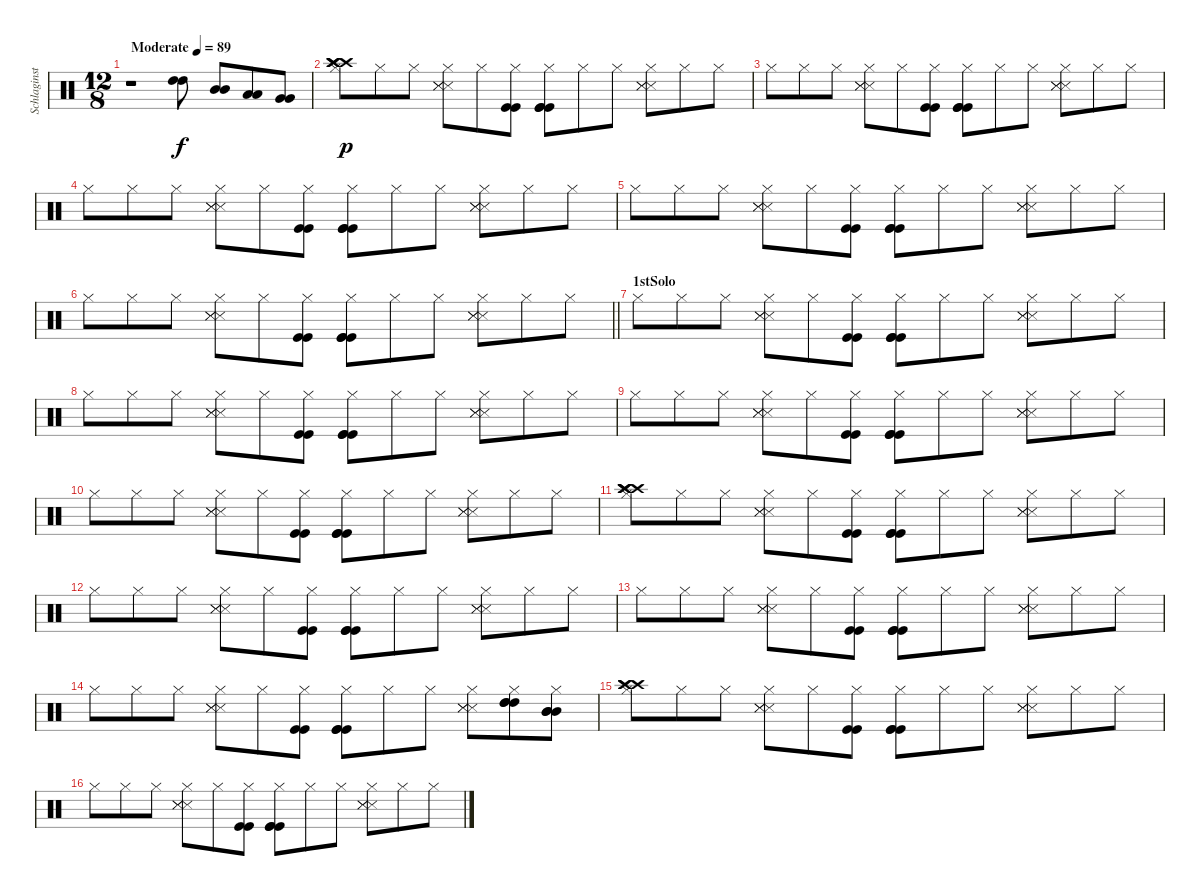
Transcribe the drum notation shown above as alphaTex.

\track ("Schlaginstrumente - Auswahl" "Schlaginst") {instrument percussion}
\staff {score}
\articulation defaults
\ts (12 8)
\tempo (89 "Moderate")
\clef neutral
\ks c
r.1{dy f} ("High Tom (hit)" "High Tom (hit)").8 ("Mid Tom (hit)" "Mid Tom (hit)").8 ("Low Tom (hit)" "Low Tom (hit)").8 ("Very Low Tom (hit)" "Very Low Tom (hit)").8 |
("Hi-Hat (closed)" "Crash high (hit)" "Crash high (hit)" "Crash high (hit)" "Crash high (hit)").8{dy p} "Hi-Hat (closed)".8 "Hi-Hat (closed)".8 ("Hi-Hat (closed)" "Snare (side stick) 3" "Snare (side stick) 3" "Snare (side stick) 3").8 "Hi-Hat (closed)".8 ("Hi-Hat (closed)" "Kick (hit)" "Kick (hit)").8 ("Hi-Hat (closed)" "Kick (hit)" "Kick (hit)" "Kick (hit)").8 "Hi-Hat (closed)".8 "Hi-Hat (closed)".8 ("Hi-Hat (closed)" "Snare (side stick) 3" "Snare (side stick) 3" "Snare (side stick) 3").8 "Hi-Hat (closed)".8 "Hi-Hat (closed)".8 |
"Hi-Hat (closed)".8 "Hi-Hat (closed)".8 "Hi-Hat (closed)".8 ("Hi-Hat (closed)" "Snare (side stick) 3" "Snare (side stick) 3" "Snare (side stick) 3").8 "Hi-Hat (closed)".8 ("Hi-Hat (closed)" "Kick (hit)" "Kick (hit)").8 ("Hi-Hat (closed)" "Kick (hit)" "Kick (hit)" "Kick (hit)").8 "Hi-Hat (closed)".8 "Hi-Hat (closed)".8 ("Hi-Hat (closed)" "Snare (side stick) 3" "Snare (side stick) 3" "Snare (side stick) 3").8 "Hi-Hat (closed)".8 "Hi-Hat (closed)".8 |
"Hi-Hat (closed)".8 "Hi-Hat (closed)".8 "Hi-Hat (closed)".8 ("Hi-Hat (closed)" "Snare (side stick) 3" "Snare (side stick) 3" "Snare (side stick) 3").8 "Hi-Hat (closed)".8 ("Hi-Hat (closed)" "Kick (hit)" "Kick (hit)").8 ("Hi-Hat (closed)" "Kick (hit)" "Kick (hit)" "Kick (hit)").8 "Hi-Hat (closed)".8 "Hi-Hat (closed)".8 ("Hi-Hat (closed)" "Snare (side stick) 3" "Snare (side stick) 3" "Snare (side stick) 3").8 "Hi-Hat (closed)".8 "Hi-Hat (closed)".8 |
"Hi-Hat (closed)".8 "Hi-Hat (closed)".8 "Hi-Hat (closed)".8 ("Hi-Hat (closed)" "Snare (side stick) 3" "Snare (side stick) 3" "Snare (side stick) 3").8 "Hi-Hat (closed)".8 ("Hi-Hat (closed)" "Kick (hit)" "Kick (hit)").8 ("Hi-Hat (closed)" "Kick (hit)" "Kick (hit)" "Kick (hit)").8 "Hi-Hat (closed)".8 "Hi-Hat (closed)".8 ("Hi-Hat (closed)" "Snare (side stick) 3" "Snare (side stick) 3" "Snare (side stick) 3").8 "Hi-Hat (closed)".8 "Hi-Hat (closed)".8 |
\barLineRight lightlight "Hi-Hat (closed)".8 "Hi-Hat (closed)".8 "Hi-Hat (closed)".8
("Hi-Hat (closed)" "Snare (side stick) 3" "Snare (side stick) 3" "Snare (side stick) 3").8 "Hi-Hat (closed)".8 ("Hi-Hat (closed)" "Kick (hit)" "Kick (hit)").8 ("Hi-Hat (closed)" "Kick (hit)" "Kick (hit)" "Kick (hit)").8 "Hi-Hat (closed)".8 "Hi-Hat (closed)".8 ("Hi-Hat (closed)" "Snare (side stick) 3" "Snare (side stick) 3" "Snare (side stick) 3").8 "Hi-Hat (closed)".8 "Hi-Hat (closed)".8 |
\section ("" "1stSolo")
"Hi-Hat (closed)".8 "Hi-Hat (closed)".8 "Hi-Hat (closed)".8 ("Hi-Hat (closed)" "Snare (side stick) 3" "Snare (side stick) 3" "Snare (side stick) 3").8 "Hi-Hat (closed)".8 ("Hi-Hat (closed)" "Kick (hit)" "Kick (hit)").8 ("Hi-Hat (closed)" "Kick (hit)" "Kick (hit)" "Kick (hit)").8 "Hi-Hat (closed)".8 "Hi-Hat (closed)".8 ("Hi-Hat (closed)" "Snare (side stick) 3" "Snare (side stick) 3" "Snare (side stick) 3").8 "Hi-Hat (closed)".8 "Hi-Hat (closed)".8 |
"Hi-Hat (closed)".8 "Hi-Hat (closed)".8 "Hi-Hat (closed)".8 ("Hi-Hat (closed)" "Snare (side stick) 3" "Snare (side stick) 3" "Snare (side stick) 3").8 "Hi-Hat (closed)".8 ("Hi-Hat (closed)" "Kick (hit)" "Kick (hit)").8 ("Hi-Hat (closed)" "Kick (hit)" "Kick (hit)" "Kick (hit)").8 "Hi-Hat (closed)".8 "Hi-Hat (closed)".8 ("Hi-Hat (closed)" "Snare (side stick) 3" "Snare (side stick) 3" "Snare (side stick) 3").8 "Hi-Hat (closed)".8 "Hi-Hat (closed)".8 |
"Hi-Hat (closed)".8 "Hi-Hat (closed)".8 "Hi-Hat (closed)".8 ("Hi-Hat (closed)" "Snare (side stick) 3" "Snare (side stick) 3" "Snare (side stick) 3").8 "Hi-Hat (closed)".8 ("Hi-Hat (closed)" "Kick (hit)" "Kick (hit)").8 ("Hi-Hat (closed)" "Kick (hit)" "Kick (hit)" "Kick (hit)").8 "Hi-Hat (closed)".8 "Hi-Hat (closed)".8 ("Hi-Hat (closed)" "Snare (side stick) 3" "Snare (side stick) 3" "Snare (side stick) 3").8 "Hi-Hat (closed)".8 "Hi-Hat (closed)".8 |
"Hi-Hat (closed)".8 "Hi-Hat (closed)".8 "Hi-Hat (closed)".8 ("Hi-Hat (closed)" "Snare (side stick) 3" "Snare (side stick) 3" "Snare (side stick) 3").8 "Hi-Hat (closed)".8 ("Hi-Hat (closed)" "Kick (hit)" "Kick (hit)").8 ("Hi-Hat (closed)" "Kick (hit)" "Kick (hit)" "Kick (hit)").8 "Hi-Hat (closed)".8 "Hi-Hat (closed)".8 ("Hi-Hat (closed)" "Snare (side stick) 3" "Snare (side stick) 3" "Snare (side stick) 3").8 "Hi-Hat (closed)".8 "Hi-Hat (closed)".8 |
("Hi-Hat (closed)" "Crash high (hit)" "Crash high (hit)" "Crash high (hit)" "Crash high (hit)").8 "Hi-Hat (closed)".8 "Hi-Hat (closed)".8 ("Hi-Hat (closed)" "Snare (side stick) 3" "Snare (side stick) 3" "Snare (side stick) 3").8 "Hi-Hat (closed)".8 ("Hi-Hat (closed)" "Kick (hit)" "Kick (hit)").8 ("Hi-Hat (closed)" "Kick (hit)" "Kick (hit)" "Kick (hit)").8 "Hi-Hat (closed)".8 "Hi-Hat (closed)".8 ("Hi-Hat (closed)" "Snare (side stick) 3" "Snare (side stick) 3" "Snare (side stick) 3").8 "Hi-Hat (closed)".8 "Hi-Hat (closed)".8 |
"Hi-Hat (closed)".8 "Hi-Hat (closed)".8 "Hi-Hat (closed)".8 ("Hi-Hat (closed)" "Snare (side stick) 3" "Snare (side stick) 3" "Snare (side stick) 3").8 "Hi-Hat (closed)".8 ("Hi-Hat (closed)" "Kick (hit)" "Kick (hit)").8 ("Hi-Hat (closed)" "Kick (hit)" "Kick (hit)" "Kick (hit)").8 "Hi-Hat (closed)".8 "Hi-Hat (closed)".8 ("Hi-Hat (closed)" "Snare (side stick) 3" "Snare (side stick) 3" "Snare (side stick) 3").8 "Hi-Hat (closed)".8 "Hi-Hat (closed)".8 |
"Hi-Hat (closed)".8 "Hi-Hat (closed)".8 "Hi-Hat (closed)".8 ("Hi-Hat (closed)" "Snare (side stick) 3" "Snare (side stick) 3" "Snare (side stick) 3").8 "Hi-Hat (closed)".8 ("Hi-Hat (closed)" "Kick (hit)" "Kick (hit)").8 ("Hi-Hat (closed)" "Kick (hit)" "Kick (hit)" "Kick (hit)").8 "Hi-Hat (closed)".8 "Hi-Hat (closed)".8 ("Hi-Hat (closed)" "Snare (side stick) 3" "Snare (side stick) 3" "Snare (side stick) 3").8 "Hi-Hat (closed)".8 "Hi-Hat (closed)".8 |
"Hi-Hat (closed)".8 "Hi-Hat (closed)".8 "Hi-Hat (closed)".8 ("Hi-Hat (closed)" "Snare (side stick) 3" "Snare (side stick) 3" "Snare (side stick) 3").8 "Hi-Hat (closed)".8 ("Hi-Hat (closed)" "Kick (hit)" "Kick (hit)").8 ("Hi-Hat (closed)" "Kick (hit)" "Kick (hit)" "Kick (hit)").8 "Hi-Hat (closed)".8 "Hi-Hat (closed)".8 ("Hi-Hat (closed)" "Snare (side stick) 3" "Snare (side stick) 3" "Snare (side stick) 3").8 ("Hi-Hat (closed)" "High Tom (hit)" "High Tom (hit)" "High Tom (hit)").8 ("Hi-Hat (closed)" "Mid Tom (hit)" "Mid Tom (hit)" "Mid Tom (hit)").8 |
("Hi-Hat (closed)" "Crash high (hit)" "Crash high (hit)" "Crash high (hit)").8 "Hi-Hat (closed)".8 "Hi-Hat (closed)".8 ("Hi-Hat (closed)" "Snare (side stick) 3" "Snare (side stick) 3" "Snare (side stick) 3").8 "Hi-Hat (closed)".8 ("Hi-Hat (closed)" "Kick (hit)" "Kick (hit)").8 ("Hi-Hat (closed)" "Kick (hit)" "Kick (hit)" "Kick (hit)").8 "Hi-Hat (closed)".8 "Hi-Hat (closed)".8 ("Hi-Hat (closed)" "Snare (side stick) 3" "Snare (side stick) 3" "Snare (side stick) 3").8 "Hi-Hat (closed)".8 "Hi-Hat (closed)".8 |
"Hi-Hat (closed)".8 "Hi-Hat (closed)".8 "Hi-Hat (closed)".8 ("Hi-Hat (closed)" "Snare (side stick) 3" "Snare (side stick) 3" "Snare (side stick) 3").8 "Hi-Hat (closed)".8 ("Hi-Hat (closed)" "Kick (hit)" "Kick (hit)").8 ("Hi-Hat (closed)" "Kick (hit)" "Kick (hit)" "Kick (hit)").8 "Hi-Hat (closed)".8 "Hi-Hat (closed)".8 ("Hi-Hat (closed)" "Snare (side stick) 3" "Snare (side stick) 3" "Snare (side stick) 3").8 "Hi-Hat (closed)".8 "Hi-Hat (closed)".8
